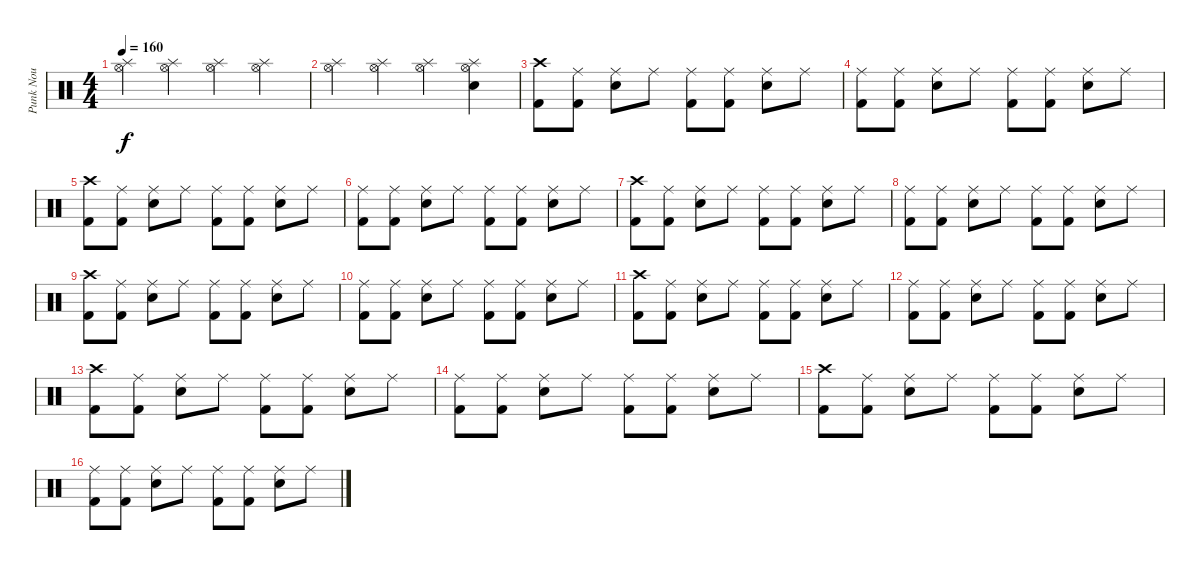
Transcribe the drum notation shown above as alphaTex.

\track ("Punk Nou" "Punk Nou") {instrument percussion}
\staff {score}
\articulation defaults
\ts (4 4)
\tempo 160
\clef neutral
\ks c
("Splash (hit)" "Hi-Hat (open)").4{dy f} ("Splash (hit)" "Hi-Hat (open)").4 ("Splash (hit)" "Hi-Hat (open)").4 ("Splash (hit)" "Hi-Hat (open)").4 |
("Splash (hit)" "Hi-Hat (open)").4 ("Splash (hit)" "Hi-Hat (open)").4 ("Splash (hit)" "Hi-Hat (open)").4 ("Splash (hit)" "Hi-Hat (open)" "Electric Snare (hit)").4 |
("Crash high (hit)" "Kick (hit) 2").8 ("Ride (middle)" "Kick (hit) 2").8 ("Ride (middle)" "Electric Snare (hit)").8 "Ride (middle)".8 ("Ride (middle)" "Kick (hit) 2").8 ("Ride (middle)" "Kick (hit) 2").8 ("Ride (middle)" "Electric Snare (hit)").8 "Ride (middle)".8 |
("Ride (middle)" "Kick (hit) 2").8 ("Ride (middle)" "Kick (hit) 2").8 ("Ride (middle)" "Electric Snare (hit)").8 "Ride (middle)".8 ("Ride (middle)" "Kick (hit) 2").8 ("Ride (middle)" "Kick (hit) 2").8 ("Ride (middle)" "Electric Snare (hit)").8 "Ride (middle)".8 |
("Crash high (hit)" "Kick (hit) 2").8 ("Ride (middle)" "Kick (hit) 2").8 ("Ride (middle)" "Electric Snare (hit)").8 "Ride (middle)".8 ("Ride (middle)" "Kick (hit) 2").8 ("Ride (middle)" "Kick (hit) 2").8 ("Ride (middle)" "Electric Snare (hit)").8 "Ride (middle)".8 |
("Ride (middle)" "Kick (hit) 2").8 ("Ride (middle)" "Kick (hit) 2").8 ("Ride (middle)" "Electric Snare (hit)").8 "Ride (middle)".8 ("Ride (middle)" "Kick (hit) 2").8 ("Ride (middle)" "Kick (hit) 2").8 ("Ride (middle)" "Electric Snare (hit)").8 "Ride (middle)".8 |
("Crash high (hit)" "Kick (hit) 2").8 ("Ride (middle)" "Kick (hit) 2").8 ("Ride (middle)" "Electric Snare (hit)").8 "Ride (middle)".8 ("Ride (middle)" "Kick (hit) 2").8 ("Ride (middle)" "Kick (hit) 2").8 ("Ride (middle)" "Electric Snare (hit)").8 "Ride (middle)".8 |
("Ride (middle)" "Kick (hit) 2").8 ("Ride (middle)" "Kick (hit) 2").8 ("Ride (middle)" "Electric Snare (hit)").8 "Ride (middle)".8 ("Ride (middle)" "Kick (hit) 2").8 ("Ride (middle)" "Kick (hit) 2").8 ("Ride (middle)" "Electric Snare (hit)").8 "Ride (middle)".8 |
("Crash high (hit)" "Kick (hit) 2").8 ("Ride (middle)" "Kick (hit) 2").8 ("Ride (middle)" "Electric Snare (hit)").8 "Ride (middle)".8 ("Ride (middle)" "Kick (hit) 2").8 ("Ride (middle)" "Kick (hit) 2").8 ("Ride (middle)" "Electric Snare (hit)").8 "Ride (middle)".8 |
("Ride (middle)" "Kick (hit) 2").8 ("Ride (middle)" "Kick (hit) 2").8 ("Ride (middle)" "Electric Snare (hit)").8 "Ride (middle)".8 ("Ride (middle)" "Kick (hit) 2").8 ("Ride (middle)" "Kick (hit) 2").8 ("Ride (middle)" "Electric Snare (hit)").8 "Ride (middle)".8 |
("Crash high (hit)" "Kick (hit) 2").8 ("Ride (middle)" "Kick (hit) 2").8 ("Ride (middle)" "Electric Snare (hit)").8 "Ride (middle)".8 ("Ride (middle)" "Kick (hit) 2").8 ("Ride (middle)" "Kick (hit) 2").8 ("Ride (middle)" "Electric Snare (hit)").8 "Ride (middle)".8 |
("Ride (middle)" "Kick (hit) 2").8 ("Ride (middle)" "Kick (hit) 2").8 ("Ride (middle)" "Electric Snare (hit)").8 "Ride (middle)".8 ("Ride (middle)" "Kick (hit) 2").8 ("Ride (middle)" "Kick (hit) 2").8 ("Ride (middle)" "Electric Snare (hit)").8 "Ride (middle)".8 |
("Crash high (hit)" "Kick (hit) 2").8 ("Ride (middle)" "Kick (hit) 2").8 ("Ride (middle)" "Electric Snare (hit)").8 "Ride (middle)".8 ("Ride (middle)" "Kick (hit) 2").8 ("Ride (middle)" "Kick (hit) 2").8 ("Ride (middle)" "Electric Snare (hit)").8 "Ride (middle)".8 |
("Ride (middle)" "Kick (hit) 2").8 ("Ride (middle)" "Kick (hit) 2").8 ("Ride (middle)" "Electric Snare (hit)").8 "Ride (middle)".8 ("Ride (middle)" "Kick (hit) 2").8 ("Ride (middle)" "Kick (hit) 2").8 ("Ride (middle)" "Electric Snare (hit)").8 "Ride (middle)".8 |
("Crash high (hit)" "Kick (hit) 2").8 ("Ride (middle)" "Kick (hit) 2").8 ("Ride (middle)" "Electric Snare (hit)").8 "Ride (middle)".8 ("Ride (middle)" "Kick (hit) 2").8 ("Ride (middle)" "Kick (hit) 2").8 ("Ride (middle)" "Electric Snare (hit)").8 "Ride (middle)".8 |
("Ride (middle)" "Kick (hit) 2").8 ("Ride (middle)" "Kick (hit) 2").8 ("Ride (middle)" "Electric Snare (hit)").8 "Ride (middle)".8 ("Ride (middle)" "Kick (hit) 2").8 ("Ride (middle)" "Kick (hit) 2").8 ("Ride (middle)" "Electric Snare (hit)").8 "Ride (middle)".8
